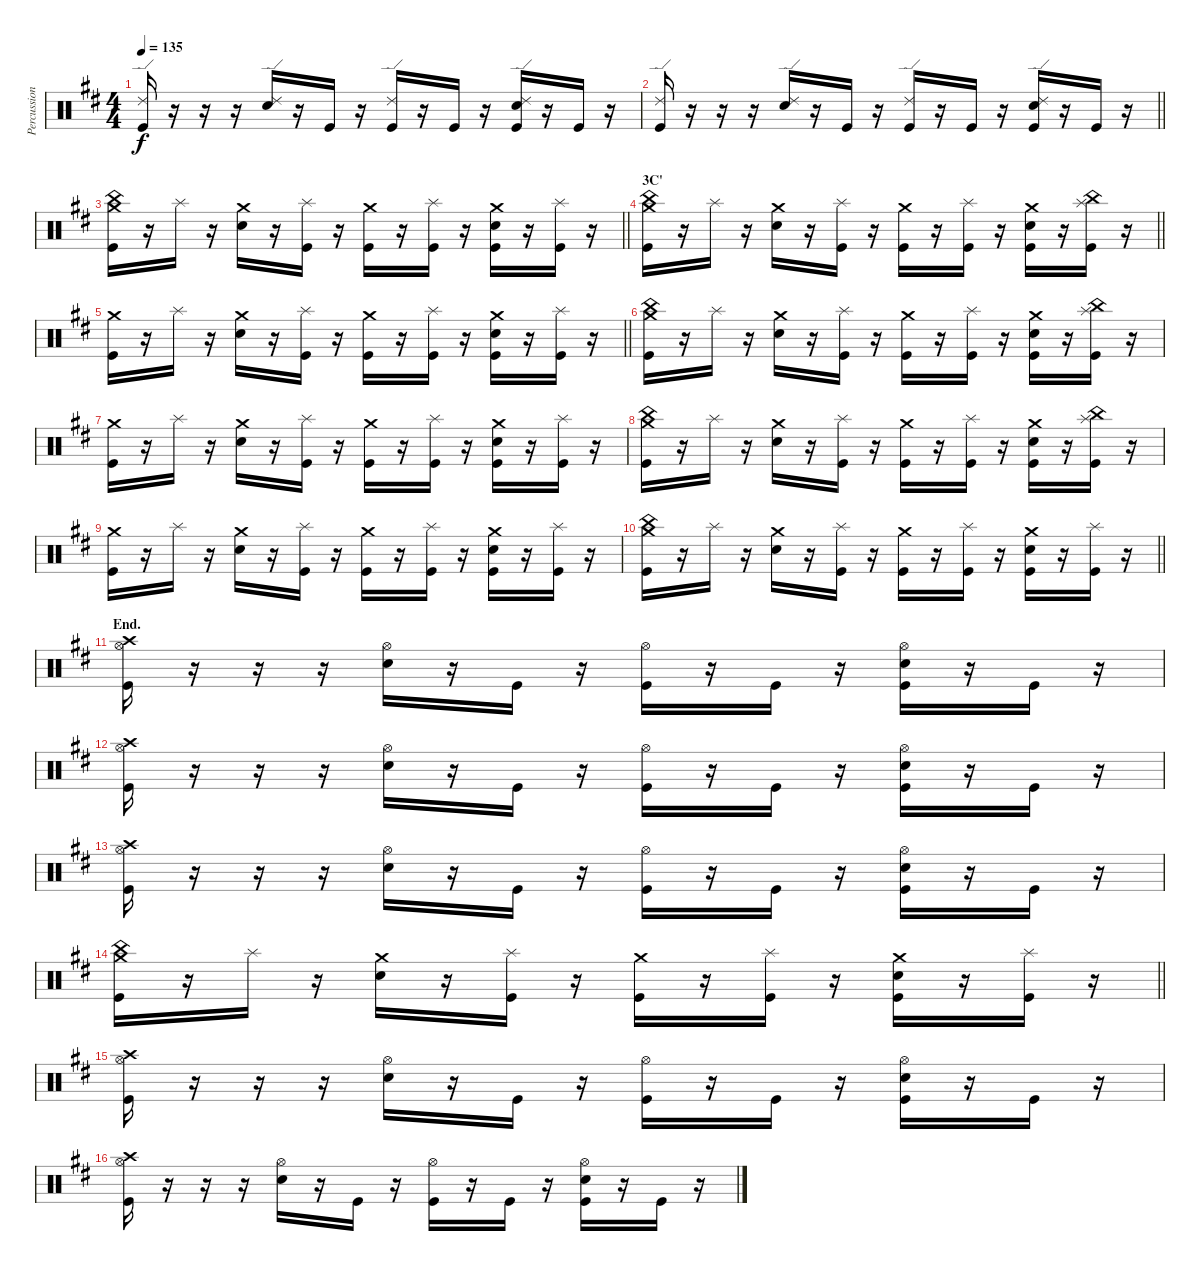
\track ("Percussion" "Percussion") {instrument percussion}
\staff {score}
\articulation defaults
\ts (4 4)
\tempo 135
\clef neutral
\ks bminor
("Ride (edge) 2" "Kick (hit)").16{dy f} r.16 r.16 r.16 ("Ride (edge) 2" "Electric Snare (hit)").16 r.16 "Kick (hit)".16 r.16 ("Ride (edge) 2" "Kick (hit)").16 r.16 "Kick (hit)".16 r.16 ("Ride (edge) 2" "Electric Snare (hit)" "Kick (hit)").16 r.16 "Kick (hit)".16 r.16 |
\barLineRight lightlight
("Ride (edge) 2" "Kick (hit)").16 r.16 r.16 r.16 ("Ride (edge) 2" "Electric Snare (hit)").16 r.16 "Kick (hit)".16 r.16 ("Ride (edge) 2" "Kick (hit)").16 r.16 "Kick (hit)".16 r.16 ("Ride (edge) 2" "Electric Snare (hit)" "Kick (hit)").16 r.16 "Kick (hit)".16 r.16 |
\barLineRight lightlight
("Crash medium (hit)" "China (hit)" "Kick (hit)").16 r.16 "Splash (hit)".16 r.16 ("Crash medium (hit)" "Electric Snare (hit)").16 r.16 ("Splash (hit)" "Kick (hit)").16 r.16 ("Crash medium (hit)" "Kick (hit)").16 r.16 ("Splash (hit)" "Kick (hit)").16 r.16 ("Crash medium (hit)" "Electric Snare (hit)" "Kick (hit)").16 r.16 ("Splash (hit)" "Kick (hit)").16 r.16 |
\section ("" "3C'")
\barLineRight lightlight
("Crash medium (hit)" "China (hit)" "Kick (hit)").16 r.16 "Splash (hit)".16 r.16 ("Crash medium (hit)" "Electric Snare (hit)").16 r.16 ("Splash (hit)" "Kick (hit)").16 r.16 ("Crash medium (hit)" "Kick (hit)").16 r.16 ("Splash (hit)" "Kick (hit)").16 r.16 ("Crash medium (hit)" "Electric Snare (hit)" "Kick (hit)").16 r.16 ("Splash (hit)" "China (hit)" "Kick (hit)").16 r.16 |
\barLineRight lightlight
("Crash medium (hit)" "Kick (hit)").16 r.16 "Splash (hit)".16 r.16 ("Crash medium (hit)" "Electric Snare (hit)").16 r.16 ("Splash (hit)" "Kick (hit)").16 r.16 ("Crash medium (hit)" "Kick (hit)").16 r.16 ("Splash (hit)" "Kick (hit)").16 r.16 ("Crash medium (hit)" "Electric Snare (hit)" "Kick (hit)").16 r.16 ("Splash (hit)" "Kick (hit)").16 r.16 |
("Crash medium (hit)" "China (hit)" "Kick (hit)").16 r.16 "Splash (hit)".16 r.16 ("Crash medium (hit)" "Electric Snare (hit)").16 r.16 ("Splash (hit)" "Kick (hit)").16 r.16 ("Crash medium (hit)" "Kick (hit)").16 r.16 ("Splash (hit)" "Kick (hit)").16 r.16 ("Crash medium (hit)" "Electric Snare (hit)" "Kick (hit)").16 r.16 ("Splash (hit)" "China (hit)" "Kick (hit)").16 r.16 |
("Crash medium (hit)" "Kick (hit)").16 r.16 "Splash (hit)".16 r.16 ("Crash medium (hit)" "Electric Snare (hit)").16 r.16 ("Splash (hit)" "Kick (hit)").16 r.16 ("Crash medium (hit)" "Kick (hit)").16 r.16 ("Splash (hit)" "Kick (hit)").16 r.16 ("Crash medium (hit)" "Electric Snare (hit)" "Kick (hit)").16 r.16 ("Splash (hit)" "Kick (hit)").16 r.16 |
("Crash medium (hit)" "China (hit)" "Kick (hit)").16 r.16 "Splash (hit)".16 r.16 ("Crash medium (hit)" "Electric Snare (hit)").16 r.16 ("Splash (hit)" "Kick (hit)").16 r.16 ("Crash medium (hit)" "Kick (hit)").16 r.16 ("Splash (hit)" "Kick (hit)").16 r.16 ("Crash medium (hit)" "Electric Snare (hit)" "Kick (hit)").16 r.16 ("Splash (hit)" "China (hit)" "Kick (hit)").16 r.16 |
("Crash medium (hit)" "Kick (hit)").16 r.16 "Splash (hit)".16 r.16 ("Crash medium (hit)" "Electric Snare (hit)").16 r.16 ("Splash (hit)" "Kick (hit)").16 r.16 ("Crash medium (hit)" "Kick (hit)").16 r.16 ("Splash (hit)" "Kick (hit)").16 r.16 ("Crash medium (hit)" "Electric Snare (hit)" "Kick (hit)").16 r.16 ("Splash (hit)" "Kick (hit)").16 r.16 |
\barLineRight lightlight
("Crash medium (hit)" "China (hit)" "Kick (hit)").16 r.16 "Splash (hit)".16 r.16 ("Crash medium (hit)" "Electric Snare (hit)").16 r.16 ("Splash (hit)" "Kick (hit)").16 r.16 ("Crash medium (hit)" "Kick (hit)").16 r.16 ("Splash (hit)" "Kick (hit)").16 r.16 ("Crash medium (hit)" "Electric Snare (hit)" "Kick (hit)").16 r.16 ("Splash (hit)" "Kick (hit)").16 r.16 |
\section ("" "End.")
("Hi-Hat (open)" "Crash high (hit)" "Kick (hit)").16 r.16 r.16 r.16 ("Hi-Hat (open)" "Electric Snare (hit)").16 r.16 "Kick (hit)".16 r.16 ("Hi-Hat (open)" "Kick (hit)").16 r.16 "Kick (hit)".16 r.16 ("Hi-Hat (open)" "Electric Snare (hit)" "Kick (hit)").16 r.16 "Kick (hit)".16 r.16 |
("Hi-Hat (open)" "Crash high (hit)" "Kick (hit)").16 r.16 r.16 r.16 ("Hi-Hat (open)" "Electric Snare (hit)").16 r.16 "Kick (hit)".16 r.16 ("Hi-Hat (open)" "Kick (hit)").16 r.16 "Kick (hit)".16 r.16 ("Hi-Hat (open)" "Electric Snare (hit)" "Kick (hit)").16 r.16 "Kick (hit)".16 r.16 |
("Hi-Hat (open)" "Crash high (hit)" "Kick (hit)").16 r.16 r.16 r.16 ("Hi-Hat (open)" "Electric Snare (hit)").16 r.16 "Kick (hit)".16 r.16 ("Hi-Hat (open)" "Kick (hit)").16 r.16 "Kick (hit)".16 r.16 ("Hi-Hat (open)" "Electric Snare (hit)" "Kick (hit)").16 r.16 "Kick (hit)".16 r.16 |
\barLineRight lightlight
("Crash medium (hit)" "China (hit)" "Kick (hit)").16 r.16 "Splash (hit)".16 r.16 ("Crash medium (hit)" "Electric Snare (hit)").16 r.16 ("Splash (hit)" "Kick (hit)").16 r.16 ("Crash medium (hit)" "Kick (hit)").16 r.16 ("Splash (hit)" "Kick (hit)").16 r.16 ("Crash medium (hit)" "Electric Snare (hit)" "Kick (hit)").16 r.16 ("Splash (hit)" "Kick (hit)").16 r.16 |
("Hi-Hat (open)" "Crash high (hit)" "Kick (hit)").16 r.16 r.16 r.16 ("Hi-Hat (open)" "Electric Snare (hit)").16 r.16 "Kick (hit)".16 r.16 ("Hi-Hat (open)" "Kick (hit)").16 r.16 "Kick (hit)".16 r.16 ("Hi-Hat (open)" "Electric Snare (hit)" "Kick (hit)").16 r.16 "Kick (hit)".16 r.16 |
("Hi-Hat (open)" "Crash high (hit)" "Kick (hit)").16 r.16 r.16 r.16 ("Hi-Hat (open)" "Electric Snare (hit)").16 r.16 "Kick (hit)".16 r.16 ("Hi-Hat (open)" "Kick (hit)").16 r.16 "Kick (hit)".16 r.16 ("Hi-Hat (open)" "Electric Snare (hit)" "Kick (hit)").16 r.16 "Kick (hit)".16 r.16
